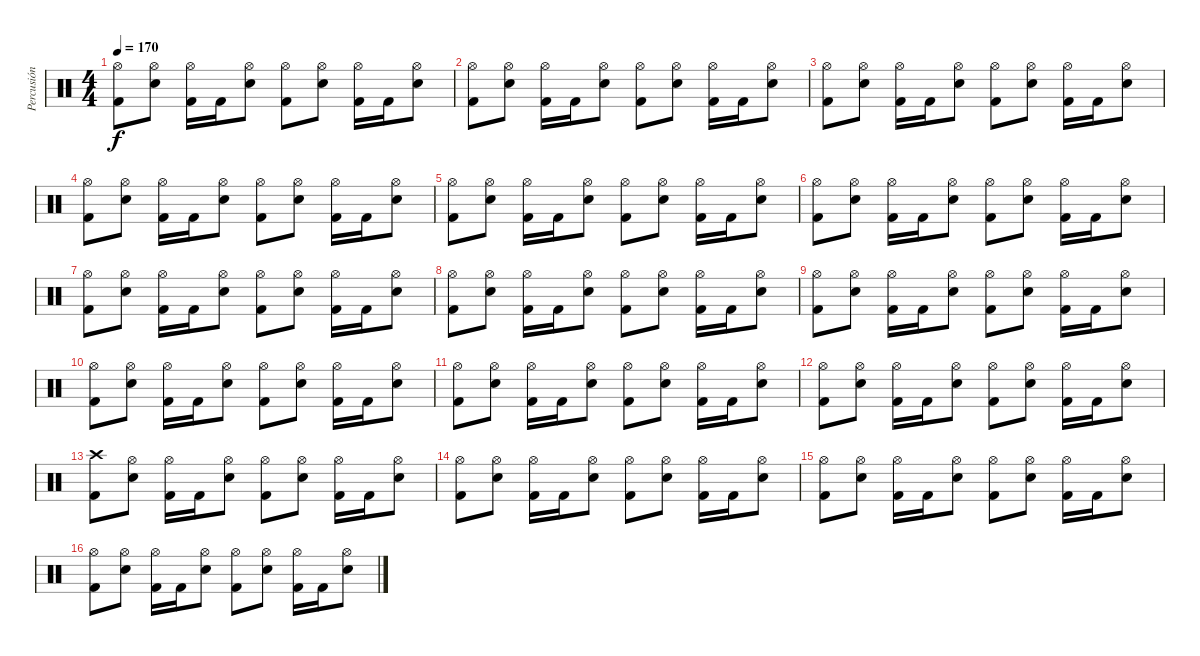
\track ("Percusión" "Percusión") {instrument percussion}
\staff {score}
\articulation defaults
\ts (4 4)
\tempo 170
\clef neutral
\ks c
("Kick (hit) 2" "Hi-Hat (open)").8{dy f} ("Snare (hit) 2" "Hi-Hat (open)").8 ("Kick (hit) 2" "Hi-Hat (open)").16 "Kick (hit) 2".16 ("Snare (hit) 2" "Hi-Hat (open)").8 ("Kick (hit) 2" "Hi-Hat (open)").8 ("Snare (hit) 2" "Hi-Hat (open)").8 ("Kick (hit) 2" "Hi-Hat (open)").16 "Kick (hit) 2".16 ("Snare (hit) 2" "Hi-Hat (open)").8 |
("Kick (hit) 2" "Hi-Hat (open)").8 ("Snare (hit) 2" "Hi-Hat (open)").8 ("Kick (hit) 2" "Hi-Hat (open)").16 "Kick (hit) 2".16 ("Snare (hit) 2" "Hi-Hat (open)").8 ("Kick (hit) 2" "Hi-Hat (open)").8 ("Snare (hit) 2" "Hi-Hat (open)").8 ("Kick (hit) 2" "Hi-Hat (open)").16 "Kick (hit) 2".16 ("Snare (hit) 2" "Hi-Hat (open)").8 |
("Kick (hit) 2" "Hi-Hat (open)").8 ("Snare (hit) 2" "Hi-Hat (open)").8 ("Kick (hit) 2" "Hi-Hat (open)").16 "Kick (hit) 2".16 ("Snare (hit) 2" "Hi-Hat (open)").8 ("Kick (hit) 2" "Hi-Hat (open)").8 ("Snare (hit) 2" "Hi-Hat (open)").8 ("Kick (hit) 2" "Hi-Hat (open)").16 "Kick (hit) 2".16 ("Snare (hit) 2" "Hi-Hat (open)").8 |
("Kick (hit) 2" "Hi-Hat (open)").8 ("Snare (hit) 2" "Hi-Hat (open)").8 ("Kick (hit) 2" "Hi-Hat (open)").16 "Kick (hit) 2".16 ("Snare (hit) 2" "Hi-Hat (open)").8 ("Kick (hit) 2" "Hi-Hat (open)").8 ("Snare (hit) 2" "Hi-Hat (open)").8 ("Kick (hit) 2" "Hi-Hat (open)").16 "Kick (hit) 2".16 ("Snare (hit) 2" "Hi-Hat (open)").8 |
("Kick (hit) 2" "Hi-Hat (open)").8 ("Snare (hit) 2" "Hi-Hat (open)").8 ("Kick (hit) 2" "Hi-Hat (open)").16 "Kick (hit) 2".16 ("Snare (hit) 2" "Hi-Hat (open)").8 ("Kick (hit) 2" "Hi-Hat (open)").8 ("Snare (hit) 2" "Hi-Hat (open)").8 ("Kick (hit) 2" "Hi-Hat (open)").16 "Kick (hit) 2".16 ("Snare (hit) 2" "Hi-Hat (open)").8 |
("Kick (hit) 2" "Hi-Hat (open)").8 ("Snare (hit) 2" "Hi-Hat (open)").8 ("Kick (hit) 2" "Hi-Hat (open)").16 "Kick (hit) 2".16 ("Snare (hit) 2" "Hi-Hat (open)").8 ("Kick (hit) 2" "Hi-Hat (open)").8 ("Snare (hit) 2" "Hi-Hat (open)").8 ("Kick (hit) 2" "Hi-Hat (open)").16 "Kick (hit) 2".16 ("Snare (hit) 2" "Hi-Hat (open)").8 |
("Kick (hit) 2" "Hi-Hat (open)").8 ("Snare (hit) 2" "Hi-Hat (open)").8 ("Kick (hit) 2" "Hi-Hat (open)").16 "Kick (hit) 2".16 ("Snare (hit) 2" "Hi-Hat (open)").8 ("Kick (hit) 2" "Hi-Hat (open)").8 ("Snare (hit) 2" "Hi-Hat (open)").8 ("Kick (hit) 2" "Hi-Hat (open)").16 "Kick (hit) 2".16 ("Snare (hit) 2" "Hi-Hat (open)").8 |
("Kick (hit) 2" "Hi-Hat (open)").8 ("Snare (hit) 2" "Hi-Hat (open)").8 ("Kick (hit) 2" "Hi-Hat (open)").16 "Kick (hit) 2".16 ("Snare (hit) 2" "Hi-Hat (open)").8 ("Kick (hit) 2" "Hi-Hat (open)").8 ("Snare (hit) 2" "Hi-Hat (open)").8 ("Kick (hit) 2" "Hi-Hat (open)").16 "Kick (hit) 2".16 ("Snare (hit) 2" "Hi-Hat (open)").8 |
("Kick (hit) 2" "Hi-Hat (open)").8 ("Snare (hit) 2" "Hi-Hat (open)").8 ("Kick (hit) 2" "Hi-Hat (open)").16 "Kick (hit) 2".16 ("Snare (hit) 2" "Hi-Hat (open)").8 ("Kick (hit) 2" "Hi-Hat (open)").8 ("Snare (hit) 2" "Hi-Hat (open)").8 ("Kick (hit) 2" "Hi-Hat (open)").16 "Kick (hit) 2".16 ("Snare (hit) 2" "Hi-Hat (open)").8 |
("Kick (hit) 2" "Hi-Hat (open)").8 ("Snare (hit) 2" "Hi-Hat (open)").8 ("Kick (hit) 2" "Hi-Hat (open)").16 "Kick (hit) 2".16 ("Snare (hit) 2" "Hi-Hat (open)").8 ("Kick (hit) 2" "Hi-Hat (open)").8 ("Snare (hit) 2" "Hi-Hat (open)").8 ("Kick (hit) 2" "Hi-Hat (open)").16 "Kick (hit) 2".16 ("Snare (hit) 2" "Hi-Hat (open)").8 |
("Kick (hit) 2" "Hi-Hat (open)").8 ("Snare (hit) 2" "Hi-Hat (open)").8 ("Kick (hit) 2" "Hi-Hat (open)").16 "Kick (hit) 2".16 ("Snare (hit) 2" "Hi-Hat (open)").8 ("Kick (hit) 2" "Hi-Hat (open)").8 ("Snare (hit) 2" "Hi-Hat (open)").8 ("Kick (hit) 2" "Hi-Hat (open)").16 "Kick (hit) 2".16 ("Snare (hit) 2" "Hi-Hat (open)").8 |
("Kick (hit) 2" "Hi-Hat (open)").8 ("Snare (hit) 2" "Hi-Hat (open)").8 ("Kick (hit) 2" "Hi-Hat (open)").16 "Kick (hit) 2".16 ("Snare (hit) 2" "Hi-Hat (open)").8 ("Kick (hit) 2" "Hi-Hat (open)").8 ("Snare (hit) 2" "Hi-Hat (open)").8 ("Kick (hit) 2" "Hi-Hat (open)").16 "Kick (hit) 2".16 ("Snare (hit) 2" "Hi-Hat (open)").8 |
("Kick (hit) 2" "Crash high (hit)").8 ("Snare (hit) 2" "Hi-Hat (open)").8 ("Kick (hit) 2" "Hi-Hat (open)").16 "Kick (hit) 2".16 ("Snare (hit) 2" "Hi-Hat (open)").8 ("Kick (hit) 2" "Hi-Hat (open)").8 ("Snare (hit) 2" "Hi-Hat (open)").8 ("Kick (hit) 2" "Hi-Hat (open)").16 "Kick (hit) 2".16 ("Snare (hit) 2" "Hi-Hat (open)").8 |
("Kick (hit) 2" "Hi-Hat (open)").8 ("Snare (hit) 2" "Hi-Hat (open)").8 ("Kick (hit) 2" "Hi-Hat (open)").16 "Kick (hit) 2".16 ("Snare (hit) 2" "Hi-Hat (open)").8 ("Kick (hit) 2" "Hi-Hat (open)").8 ("Snare (hit) 2" "Hi-Hat (open)").8 ("Kick (hit) 2" "Hi-Hat (open)").16 "Kick (hit) 2".16 ("Snare (hit) 2" "Hi-Hat (open)").8 |
("Kick (hit) 2" "Hi-Hat (open)").8 ("Snare (hit) 2" "Hi-Hat (open)").8 ("Kick (hit) 2" "Hi-Hat (open)").16 "Kick (hit) 2".16 ("Snare (hit) 2" "Hi-Hat (open)").8 ("Kick (hit) 2" "Hi-Hat (open)").8 ("Snare (hit) 2" "Hi-Hat (open)").8 ("Kick (hit) 2" "Hi-Hat (open)").16 "Kick (hit) 2".16 ("Snare (hit) 2" "Hi-Hat (open)").8 |
("Kick (hit) 2" "Hi-Hat (open)").8 ("Snare (hit) 2" "Hi-Hat (open)").8 ("Kick (hit) 2" "Hi-Hat (open)").16 "Kick (hit) 2".16 ("Snare (hit) 2" "Hi-Hat (open)").8 ("Kick (hit) 2" "Hi-Hat (open)").8 ("Snare (hit) 2" "Hi-Hat (open)").8 ("Kick (hit) 2" "Hi-Hat (open)").16 "Kick (hit) 2".16 ("Snare (hit) 2" "Hi-Hat (open)").8
